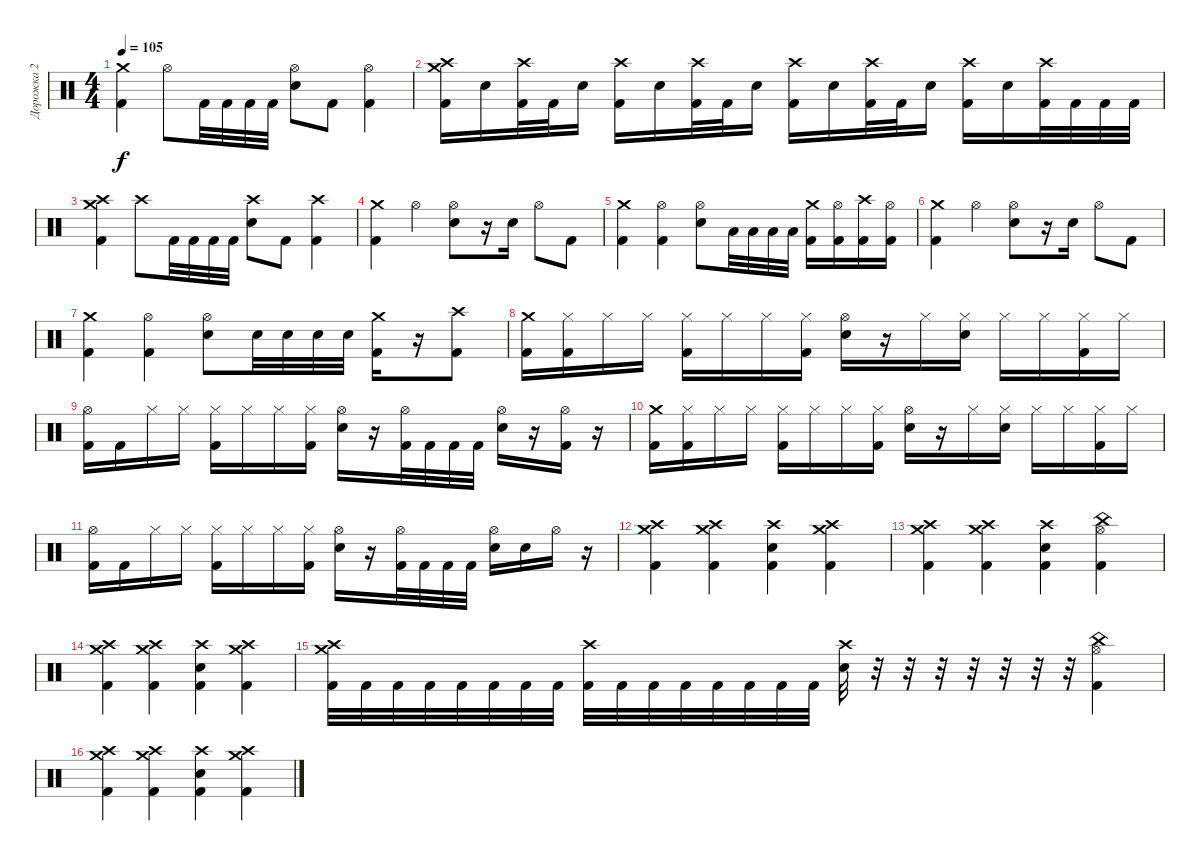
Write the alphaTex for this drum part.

\track ("Дорожка 2" "Дорожка 2") {instrument percussion}
\staff {score}
\articulation defaults
\ts (4 4)
\tempo 105
\clef neutral
\ks c
("Kick (hit) 2" "Crash medium (hit)").4{dy f} "Hi-Hat (open)".8 "Kick (hit) 2".32 "Kick (hit) 2".32 "Kick (hit) 2".32 "Kick (hit) 2".32 ("Electric Snare (hit)" "Hi-Hat (open)").8 "Kick (hit) 2".8 ("Kick (hit) 2" "Hi-Hat (open)").4 |
("Kick (hit) 2" "Crash medium (hit)" "Crash high (hit)").16 "Electric Snare (hit)".16 ("Kick (hit) 2" "Crash high (hit)").32 "Kick (hit) 2".32 "Electric Snare (hit)".16 ("Kick (hit) 2" "Crash high (hit)").16 "Electric Snare (hit)".16 ("Kick (hit) 2" "Crash high (hit)").32 "Kick (hit) 2".32 "Electric Snare (hit)".16 ("Kick (hit) 2" "Crash high (hit)").16 "Electric Snare (hit)".16 ("Kick (hit) 2" "Crash high (hit)").32 "Kick (hit) 2".32 "Electric Snare (hit)".16 ("Kick (hit) 2" "Crash high (hit)").16 "Electric Snare (hit)".16 ("Kick (hit) 2" "Crash high (hit)").32 "Kick (hit) 2".32 "Kick (hit) 2".32 "Kick (hit) 2".32 |
("Kick (hit) 2" "Crash high (hit)" "Crash medium (hit)").4 "Crash high (hit)".8 "Kick (hit) 2".32 "Kick (hit) 2".32 "Kick (hit) 2".32 "Kick (hit) 2".32 ("Electric Snare (hit)" "Crash high (hit)").8 "Kick (hit) 2".8 ("Kick (hit) 2" "Crash high (hit)").4 |
("Crash medium (hit)" "Kick (hit) 2").4 "Hi-Hat (open)".4 ("Hi-Hat (open)" "Electric Snare (hit)").8 r.16 "Electric Snare (hit)".16 "Hi-Hat (open)".8 "Kick (hit) 2".8 |
("Crash medium (hit)" "Kick (hit) 2").4 ("Hi-Hat (open)" "Kick (hit) 2").4 ("Hi-Hat (open)" "Electric Snare (hit)").8 "Low Tom (hit)".32 "Low Tom (hit)".32 "Low Tom (hit)".32 "Low Tom (hit)".32 ("Crash medium (hit)" "Kick (hit) 2").16 ("Hi-Hat (open)" "Kick (hit) 2").16 ("Crash high (hit)" "Kick (hit) 2").16 ("Hi-Hat (open)" "Kick (hit) 2").16 |
("Crash medium (hit)" "Kick (hit) 2").4 "Hi-Hat (open)".4 ("Hi-Hat (open)" "Electric Snare (hit)").8 r.16 "Electric Snare (hit)".16 "Hi-Hat (open)".8 "Kick (hit) 2".8 |
("Crash medium (hit)" "Kick (hit) 2").4 ("Hi-Hat (open)" "Kick (hit) 2").4 ("Hi-Hat (open)" "Electric Snare (hit)").8 "Electric Snare (hit)".32 "Electric Snare (hit)".32 "Electric Snare (hit)".32 "Electric Snare (hit)".32 ("Crash medium (hit)" "Kick (hit) 2").16 r.16 ("Crash high (hit)" "Kick (hit) 2").8 |
("Crash medium (hit)" "Kick (hit) 2").16 ("Hi-Hat (closed)" "Kick (hit) 2").16 "Hi-Hat (closed)".16 "Hi-Hat (closed)".16 ("Hi-Hat (closed)" "Kick (hit) 2").16 "Hi-Hat (closed)".16 "Hi-Hat (closed)".16 ("Hi-Hat (closed)" "Kick (hit) 2").16 ("Hi-Hat (open)" "Electric Snare (hit)").16 r.16 "Hi-Hat (closed)".16 ("Hi-Hat (closed)" "Electric Snare (hit)").16 "Hi-Hat (closed)".16 "Hi-Hat (closed)".16 ("Hi-Hat (closed)" "Kick (hit) 2").16 "Hi-Hat (closed)".16 |
("Hi-Hat (open)" "Kick (hit) 2").16 "Kick (hit) 2".16 "Hi-Hat (closed)".16 "Hi-Hat (closed)".16 ("Hi-Hat (closed)" "Kick (hit) 2").16 "Hi-Hat (closed)".16 "Hi-Hat (closed)".16 ("Hi-Hat (closed)" "Kick (hit) 2").16 ("Hi-Hat (open)" "Electric Snare (hit)").16 r.16 ("Hi-Hat (open)" "Kick (hit) 2").32 "Kick (hit) 2".32 "Kick (hit) 2".32 "Kick (hit) 2".32 ("Hi-Hat (open)" "Electric Snare (hit)").16 r.16 ("Hi-Hat (open)" "Kick (hit) 2").16 r.16 |
("Crash medium (hit)" "Kick (hit) 2").16 ("Hi-Hat (closed)" "Kick (hit) 2").16 "Hi-Hat (closed)".16 "Hi-Hat (closed)".16 ("Hi-Hat (closed)" "Kick (hit) 2").16 "Hi-Hat (closed)".16 "Hi-Hat (closed)".16 ("Hi-Hat (closed)" "Kick (hit) 2").16 ("Hi-Hat (open)" "Electric Snare (hit)").16 r.16 "Hi-Hat (closed)".16 ("Hi-Hat (closed)" "Electric Snare (hit)").16 "Hi-Hat (closed)".16 "Hi-Hat (closed)".16 ("Hi-Hat (closed)" "Kick (hit) 2").16 "Hi-Hat (closed)".16 |
("Hi-Hat (open)" "Kick (hit) 2").16 "Kick (hit) 2".16 "Hi-Hat (closed)".16 "Hi-Hat (closed)".16 ("Hi-Hat (closed)" "Kick (hit) 2").16 "Hi-Hat (closed)".16 "Hi-Hat (closed)".16 ("Hi-Hat (closed)" "Kick (hit) 2").16 ("Hi-Hat (open)" "Electric Snare (hit)").16 r.16 ("Hi-Hat (open)" "Kick (hit) 2").32 "Kick (hit) 2".32 "Kick (hit) 2".32 "Kick (hit) 2".32 ("Hi-Hat (open)" "Electric Snare (hit)").16 "Electric Snare (hit)".16 "Hi-Hat (open)".16 r.16 |
("Kick (hit) 2" "Crash high (hit)" "Crash medium (hit)").4 ("Kick (hit) 2" "Crash high (hit)" "Crash medium (hit)").4 ("Kick (hit) 2" "Electric Snare (hit)" "Crash high (hit)").4 ("Kick (hit) 2" "Crash high (hit)" "Crash medium (hit)").4 |
("Kick (hit) 2" "Crash high (hit)" "Crash medium (hit)").4 ("Kick (hit) 2" "Crash high (hit)" "Crash medium (hit)").4 ("Kick (hit) 2" "Electric Snare (hit)" "Crash high (hit)").4 ("Kick (hit) 2" "Hi-Hat (open)" "China (hit)").4 |
("Kick (hit) 2" "Crash high (hit)" "Crash medium (hit)").4 ("Kick (hit) 2" "Crash high (hit)" "Crash medium (hit)").4 ("Kick (hit) 2" "Electric Snare (hit)" "Crash high (hit)").4 ("Kick (hit) 2" "Crash high (hit)" "Crash medium (hit)").4 |
("Kick (hit) 2" "Crash high (hit)" "Crash medium (hit)").32 "Kick (hit) 2".32 "Kick (hit) 2".32 "Kick (hit) 2".32 "Kick (hit) 2".32 "Kick (hit) 2".32 "Kick (hit) 2".32 "Kick (hit) 2".32 ("Kick (hit) 2" "Crash high (hit)").32 "Kick (hit) 2".32 "Kick (hit) 2".32 "Kick (hit) 2".32 "Kick (hit) 2".32 "Kick (hit) 2".32 "Kick (hit) 2".32 "Kick (hit) 2".32 ("Electric Snare (hit)" "Crash high (hit)").32 r.32 r.32 r.32 r.32 r.32 r.32 r.32 ("Kick (hit) 2" "China (hit)" "Hi-Hat (open)").4 |
("Kick (hit) 2" "Crash high (hit)" "Crash medium (hit)").4 ("Kick (hit) 2" "Crash high (hit)" "Crash medium (hit)").4 ("Kick (hit) 2" "Electric Snare (hit)" "Crash high (hit)").4 ("Kick (hit) 2" "Crash high (hit)" "Crash medium (hit)").4
